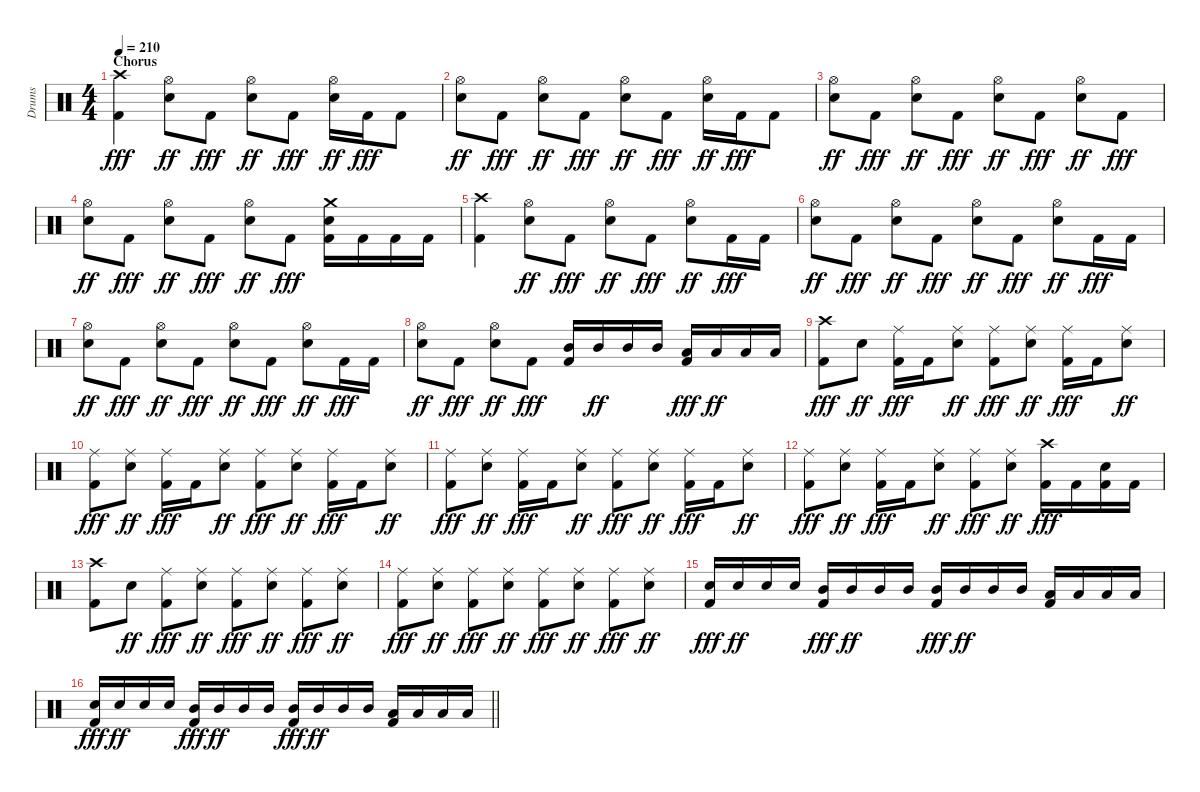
\track ("Drums" "Drums") {instrument percussion}
\staff {score}
\articulation defaults
\ts (4 4)
\section ("" "Chorus")
\tempo 210
\clef neutral
\ks c
("Crash high (hit)" "Kick (hit) 2").4{dy fff} ("Hi-Hat (open)" "Snare (hit) 2").8{dy ff} "Kick (hit) 2".8{dy fff} ("Hi-Hat (open)" "Snare (hit) 2").8{dy ff} "Kick (hit) 2".8{dy fff} ("Hi-Hat (open)" "Snare (hit) 2").16{dy ff} "Kick (hit) 2".16{dy fff} "Kick (hit) 2".8 |
("Hi-Hat (open)" "Snare (hit) 2").8{dy ff} "Kick (hit) 2".8{dy fff} ("Hi-Hat (open)" "Snare (hit) 2").8{dy ff} "Kick (hit) 2".8{dy fff} ("Hi-Hat (open)" "Snare (hit) 2").8{dy ff} "Kick (hit) 2".8{dy fff} ("Hi-Hat (open)" "Snare (hit) 2").16{dy ff} "Kick (hit) 2".16{dy fff} "Kick (hit) 2".8 |
("Hi-Hat (open)" "Snare (hit) 2").8{dy ff} "Kick (hit) 2".8{dy fff} ("Hi-Hat (open)" "Snare (hit) 2").8{dy ff} "Kick (hit) 2".8{dy fff} ("Hi-Hat (open)" "Snare (hit) 2").8{dy ff} "Kick (hit) 2".8{dy fff} ("Hi-Hat (open)" "Snare (hit) 2").8{dy ff} "Kick (hit) 2".8{dy fff} |
("Hi-Hat (open)" "Snare (hit) 2").8{dy ff} "Kick (hit) 2".8{dy fff} ("Hi-Hat (open)" "Snare (hit) 2").8{dy ff} "Kick (hit) 2".8{dy fff} ("Hi-Hat (open)" "Snare (hit) 2").8{dy ff} "Kick (hit) 2".8{dy fff} ("Crash medium (hit)" "Snare (hit) 2" "Kick (hit) 2").16 "Kick (hit) 2".16 "Kick (hit) 2".16 "Kick (hit) 2".16 |
("Crash high (hit)" "Kick (hit) 2").4 ("Hi-Hat (open)" "Snare (hit) 2").8{dy ff} "Kick (hit) 2".8{dy fff} ("Hi-Hat (open)" "Snare (hit) 2").8{dy ff} "Kick (hit) 2".8{dy fff} ("Hi-Hat (open)" "Snare (hit) 2").8{dy ff} "Kick (hit) 2".16{dy fff} "Kick (hit) 2".16 |
("Hi-Hat (open)" "Snare (hit) 2").8{dy ff} "Kick (hit) 2".8{dy fff} ("Hi-Hat (open)" "Snare (hit) 2").8{dy ff} "Kick (hit) 2".8{dy fff} ("Hi-Hat (open)" "Snare (hit) 2").8{dy ff} "Kick (hit) 2".8{dy fff} ("Hi-Hat (open)" "Snare (hit) 2").8{dy ff} "Kick (hit) 2".16{dy fff} "Kick (hit) 2".16 |
("Hi-Hat (open)" "Snare (hit) 2").8{dy ff} "Kick (hit) 2".8{dy fff} ("Hi-Hat (open)" "Snare (hit) 2").8{dy ff} "Kick (hit) 2".8{dy fff} ("Hi-Hat (open)" "Snare (hit) 2").8{dy ff} "Kick (hit) 2".8{dy fff} ("Hi-Hat (open)" "Snare (hit) 2").8{dy ff} "Kick (hit) 2".16{dy fff} "Kick (hit) 2".16 |
("Hi-Hat (open)" "Snare (hit) 2").8{dy ff} "Kick (hit) 2".8{dy fff} ("Hi-Hat (open)" "Snare (hit) 2").8{dy ff} "Kick (hit) 2".8{dy fff} ("Mid Tom (hit)" "Kick (hit) 2").16 "Mid Tom (hit)".16{dy ff} "Mid Tom (hit)".16 "Mid Tom (hit)".16 ("Low Tom (hit)" "Kick (hit) 2").16{dy fff} "Low Tom (hit)".16{dy ff} "Low Tom (hit)".16 "Low Tom (hit)".16 |
("Crash high (hit)" "Kick (hit) 2").8{dy fff} "Snare (hit) 2".8{dy ff} ("Ride (middle)" "Kick (hit) 2").16{dy fff} "Kick (hit) 2".16 ("Ride (middle)" "Snare (hit) 2").8{dy ff} ("Ride (middle)" "Kick (hit) 2").8{dy fff} ("Ride (middle)" "Snare (hit) 2").8{dy ff} ("Ride (middle)" "Kick (hit) 2").16{dy fff} "Kick (hit) 2".16 ("Ride (middle)" "Snare (hit) 2").8{dy ff} |
("Ride (middle)" "Kick (hit) 2").8{dy fff} ("Ride (middle)" "Snare (hit) 2").8{dy ff} ("Ride (middle)" "Kick (hit) 2").16{dy fff} "Kick (hit) 2".16 ("Ride (middle)" "Snare (hit) 2").8{dy ff} ("Ride (middle)" "Kick (hit) 2").8{dy fff} ("Ride (middle)" "Snare (hit) 2").8{dy ff} ("Ride (middle)" "Kick (hit) 2").16{dy fff} "Kick (hit) 2".16 ("Ride (middle)" "Snare (hit) 2").8{dy ff} |
("Ride (middle)" "Kick (hit) 2").8{dy fff} ("Ride (middle)" "Snare (hit) 2").8{dy ff} ("Ride (middle)" "Kick (hit) 2").16{dy fff} "Kick (hit) 2".16 ("Ride (middle)" "Snare (hit) 2").8{dy ff} ("Ride (middle)" "Kick (hit) 2").8{dy fff} ("Ride (middle)" "Snare (hit) 2").8{dy ff} ("Ride (middle)" "Kick (hit) 2").16{dy fff} "Kick (hit) 2".16 ("Ride (middle)" "Snare (hit) 2").8{dy ff} |
("Ride (middle)" "Kick (hit) 2").8{dy fff} ("Ride (middle)" "Snare (hit) 2").8{dy ff} ("Ride (middle)" "Kick (hit) 2").16{dy fff} "Kick (hit) 2".16 ("Ride (middle)" "Snare (hit) 2").8{dy ff} ("Ride (middle)" "Kick (hit) 2").8{dy fff} ("Ride (middle)" "Snare (hit) 2").8{dy ff} ("Crash high (hit)" "Kick (hit) 2").16{dy fff} "Kick (hit) 2".16 ("Snare (hit) 2" "Kick (hit) 2").16 "Kick (hit) 2".16 |
("Crash high (hit)" "Kick (hit) 2").8 "Snare (hit) 2".8{dy ff} ("Ride (middle)" "Kick (hit) 2").8{dy fff} ("Ride (middle)" "Snare (hit) 2").8{dy ff} ("Ride (middle)" "Kick (hit) 2").8{dy fff} ("Ride (middle)" "Snare (hit) 2").8{dy ff} ("Ride (middle)" "Kick (hit) 2").8{dy fff} ("Ride (middle)" "Snare (hit) 2").8{dy ff} |
("Ride (middle)" "Kick (hit) 2").8{dy fff} ("Ride (middle)" "Snare (hit) 2").8{dy ff} ("Ride (middle)" "Kick (hit) 2").8{dy fff} ("Ride (middle)" "Snare (hit) 2").8{dy ff} ("Ride (middle)" "Kick (hit) 2").8{dy fff} ("Ride (middle)" "Snare (hit) 2").8{dy ff} ("Ride (middle)" "Kick (hit) 2").8{dy fff} ("Ride (middle)" "Snare (hit) 2").8{dy ff} |
("Snare (hit) 2" "Kick (hit) 2").16{dy fff} "Snare (hit) 2".16{dy ff} "Snare (hit) 2".16 "Snare (hit) 2".16 ("Mid Tom (hit)" "Kick (hit) 2").16{dy fff} "Mid Tom (hit)".16{dy ff} "Mid Tom (hit)".16 "Mid Tom (hit)".16 ("Mid Tom (hit)" "Kick (hit) 2").16{dy fff} "Mid Tom (hit)".16{dy ff} "Mid Tom (hit)".16 "Mid Tom (hit)".16 ("Low Tom (hit)" "Kick (hit) 2").16 "Low Tom (hit)".16 "Low Tom (hit)".16 "Low Tom (hit)".16 |
\barLineRight lightlight
("Snare (hit) 2" "Kick (hit) 2").16{dy fff} "Snare (hit) 2".16{dy ff} "Snare (hit) 2".16 "Snare (hit) 2".16 ("Mid Tom (hit)" "Kick (hit) 2").16{dy fff} "Mid Tom (hit)".16{dy ff} "Mid Tom (hit)".16 "Mid Tom (hit)".16 ("Mid Tom (hit)" "Kick (hit) 2").16{dy fff} "Mid Tom (hit)".16{dy ff} "Mid Tom (hit)".16 "Mid Tom (hit)".16 ("Low Tom (hit)" "Kick (hit) 2").16 "Low Tom (hit)".16 "Low Tom (hit)".16 "Low Tom (hit)".16
